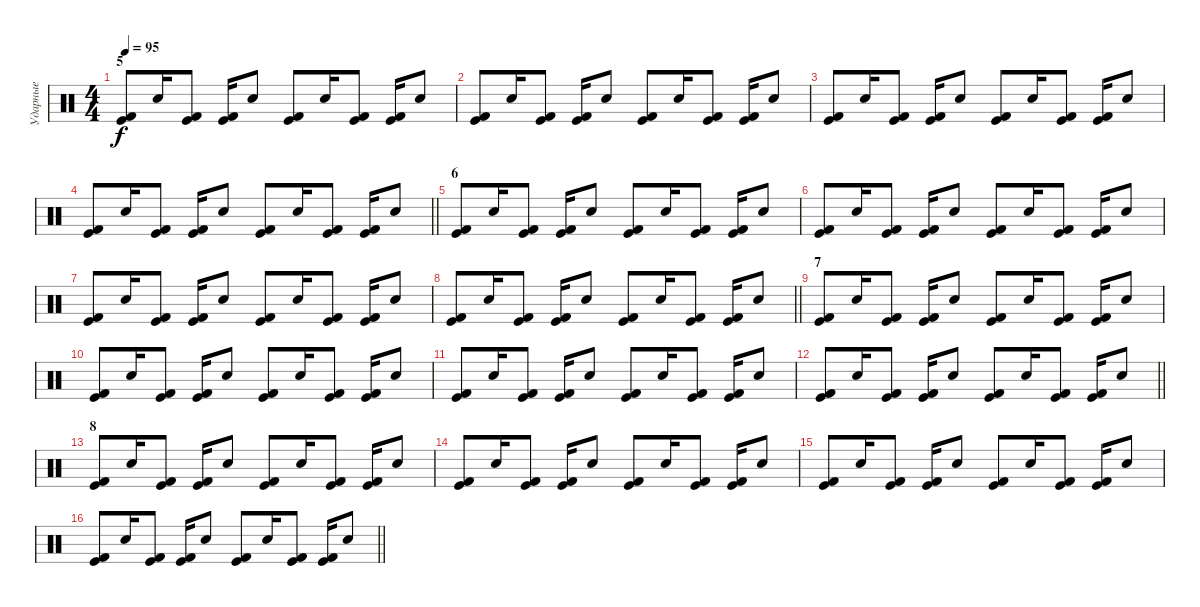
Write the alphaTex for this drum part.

\track ("Ударные" "Ударные") {instrument percussion}
\staff {score}
\articulation defaults
\ts (4 4)
\section ("" "5")
\tempo 95
\clef neutral
\ks c
("Kick (hit) 2" "Kick (hit)").8{dy f} "Electric Snare (hit)".16 ("Kick (hit) 2" "Kick (hit)").8 ("Kick (hit) 2" "Kick (hit)").16 "Electric Snare (hit)".8 ("Kick (hit) 2" "Kick (hit)").8 "Electric Snare (hit)".16 ("Kick (hit) 2" "Kick (hit)").8 ("Kick (hit) 2" "Kick (hit)").16 "Electric Snare (hit)".8 |
("Kick (hit) 2" "Kick (hit)").8 "Electric Snare (hit)".16 ("Kick (hit) 2" "Kick (hit)").8 ("Kick (hit) 2" "Kick (hit)").16 "Electric Snare (hit)".8 ("Kick (hit) 2" "Kick (hit)").8 "Electric Snare (hit)".16 ("Kick (hit) 2" "Kick (hit)").8 ("Kick (hit) 2" "Kick (hit)").16 "Electric Snare (hit)".8 |
("Kick (hit) 2" "Kick (hit)").8 "Electric Snare (hit)".16 ("Kick (hit) 2" "Kick (hit)").8 ("Kick (hit) 2" "Kick (hit)").16 "Electric Snare (hit)".8 ("Kick (hit) 2" "Kick (hit)").8 "Electric Snare (hit)".16 ("Kick (hit) 2" "Kick (hit)").8 ("Kick (hit) 2" "Kick (hit)").16 "Electric Snare (hit)".8 |
\barLineRight lightlight
("Kick (hit) 2" "Kick (hit)").8 "Electric Snare (hit)".16 ("Kick (hit) 2" "Kick (hit)").8 ("Kick (hit) 2" "Kick (hit)").16 "Electric Snare (hit)".8 ("Kick (hit) 2" "Kick (hit)").8 "Electric Snare (hit)".16 ("Kick (hit) 2" "Kick (hit)").8 ("Kick (hit) 2" "Kick (hit)").16 "Electric Snare (hit)".8 |
\section ("" "6")
("Kick (hit) 2" "Kick (hit)").8 "Electric Snare (hit)".16 ("Kick (hit) 2" "Kick (hit)").8 ("Kick (hit) 2" "Kick (hit)").16 "Electric Snare (hit)".8 ("Kick (hit) 2" "Kick (hit)").8 "Electric Snare (hit)".16 ("Kick (hit) 2" "Kick (hit)").8 ("Kick (hit) 2" "Kick (hit)").16 "Electric Snare (hit)".8 |
("Kick (hit) 2" "Kick (hit)").8 "Electric Snare (hit)".16 ("Kick (hit) 2" "Kick (hit)").8 ("Kick (hit) 2" "Kick (hit)").16 "Electric Snare (hit)".8 ("Kick (hit) 2" "Kick (hit)").8 "Electric Snare (hit)".16 ("Kick (hit) 2" "Kick (hit)").8 ("Kick (hit) 2" "Kick (hit)").16 "Electric Snare (hit)".8 |
("Kick (hit) 2" "Kick (hit)").8 "Electric Snare (hit)".16 ("Kick (hit) 2" "Kick (hit)").8 ("Kick (hit) 2" "Kick (hit)").16 "Electric Snare (hit)".8 ("Kick (hit) 2" "Kick (hit)").8 "Electric Snare (hit)".16 ("Kick (hit) 2" "Kick (hit)").8 ("Kick (hit) 2" "Kick (hit)").16 "Electric Snare (hit)".8 |
\barLineRight lightlight
("Kick (hit) 2" "Kick (hit)").8 "Electric Snare (hit)".16 ("Kick (hit) 2" "Kick (hit)").8 ("Kick (hit) 2" "Kick (hit)").16 "Electric Snare (hit)".8 ("Kick (hit) 2" "Kick (hit)").8 "Electric Snare (hit)".16 ("Kick (hit) 2" "Kick (hit)").8 ("Kick (hit) 2" "Kick (hit)").16 "Electric Snare (hit)".8 |
\section ("" "7")
("Kick (hit) 2" "Kick (hit)").8 "Electric Snare (hit)".16 ("Kick (hit) 2" "Kick (hit)").8 ("Kick (hit) 2" "Kick (hit)").16 "Electric Snare (hit)".8 ("Kick (hit) 2" "Kick (hit)").8 "Electric Snare (hit)".16 ("Kick (hit) 2" "Kick (hit)").8 ("Kick (hit) 2" "Kick (hit)").16 "Electric Snare (hit)".8 |
("Kick (hit) 2" "Kick (hit)").8 "Electric Snare (hit)".16 ("Kick (hit) 2" "Kick (hit)").8 ("Kick (hit) 2" "Kick (hit)").16 "Electric Snare (hit)".8 ("Kick (hit) 2" "Kick (hit)").8 "Electric Snare (hit)".16 ("Kick (hit) 2" "Kick (hit)").8 ("Kick (hit) 2" "Kick (hit)").16 "Electric Snare (hit)".8 |
("Kick (hit) 2" "Kick (hit)").8 "Electric Snare (hit)".16 ("Kick (hit) 2" "Kick (hit)").8 ("Kick (hit) 2" "Kick (hit)").16 "Electric Snare (hit)".8 ("Kick (hit) 2" "Kick (hit)").8 "Electric Snare (hit)".16 ("Kick (hit) 2" "Kick (hit)").8 ("Kick (hit) 2" "Kick (hit)").16 "Electric Snare (hit)".8 |
\barLineRight lightlight
("Kick (hit) 2" "Kick (hit)").8 "Electric Snare (hit)".16 ("Kick (hit) 2" "Kick (hit)").8 ("Kick (hit) 2" "Kick (hit)").16 "Electric Snare (hit)".8 ("Kick (hit) 2" "Kick (hit)").8 "Electric Snare (hit)".16 ("Kick (hit) 2" "Kick (hit)").8 ("Kick (hit) 2" "Kick (hit)").16 "Electric Snare (hit)".8 |
\section ("" "8")
("Kick (hit) 2" "Kick (hit)").8 "Electric Snare (hit)".16 ("Kick (hit) 2" "Kick (hit)").8 ("Kick (hit) 2" "Kick (hit)").16 "Electric Snare (hit)".8 ("Kick (hit) 2" "Kick (hit)").8 "Electric Snare (hit)".16 ("Kick (hit) 2" "Kick (hit)").8 ("Kick (hit) 2" "Kick (hit)").16 "Electric Snare (hit)".8 |
("Kick (hit) 2" "Kick (hit)").8 "Electric Snare (hit)".16 ("Kick (hit) 2" "Kick (hit)").8 ("Kick (hit) 2" "Kick (hit)").16 "Electric Snare (hit)".8 ("Kick (hit) 2" "Kick (hit)").8 "Electric Snare (hit)".16 ("Kick (hit) 2" "Kick (hit)").8 ("Kick (hit) 2" "Kick (hit)").16 "Electric Snare (hit)".8 |
("Kick (hit) 2" "Kick (hit)").8 "Electric Snare (hit)".16 ("Kick (hit) 2" "Kick (hit)").8 ("Kick (hit) 2" "Kick (hit)").16 "Electric Snare (hit)".8 ("Kick (hit) 2" "Kick (hit)").8 "Electric Snare (hit)".16 ("Kick (hit) 2" "Kick (hit)").8 ("Kick (hit) 2" "Kick (hit)").16 "Electric Snare (hit)".8 |
\barLineRight lightlight
("Kick (hit) 2" "Kick (hit)").8 "Electric Snare (hit)".16 ("Kick (hit) 2" "Kick (hit)").8 ("Kick (hit) 2" "Kick (hit)").16 "Electric Snare (hit)".8 ("Kick (hit) 2" "Kick (hit)").8 "Electric Snare (hit)".16 ("Kick (hit) 2" "Kick (hit)").8 ("Kick (hit) 2" "Kick (hit)").16 "Electric Snare (hit)".8
